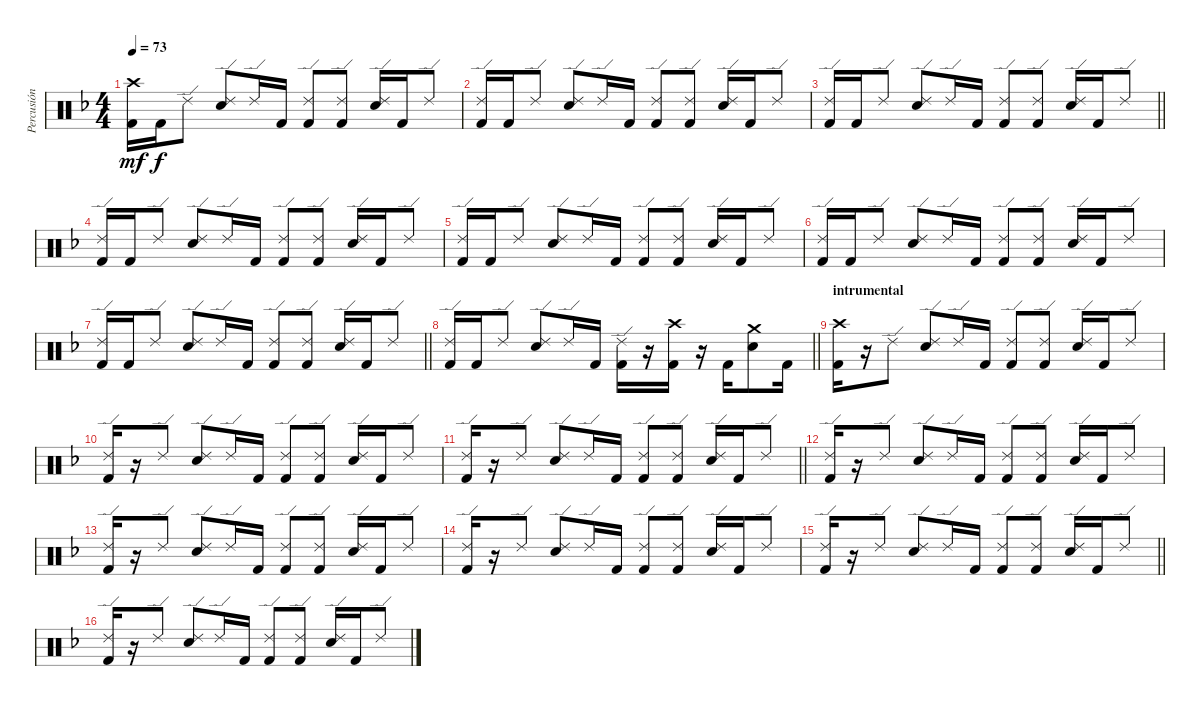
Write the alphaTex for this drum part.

\track ("Percusión" "Percusión") {instrument percussion}
\staff {score}
\articulation defaults
\ts (4 4)
\tempo 73
\clef neutral
\ks f
("Crash high (hit)" "Kick (hit) 2").16{dy mf} "Kick (hit) 2".16{dy f} "Ride (edge) 2".8 ("Ride (edge) 2" "Snare (hit) 2").8 "Ride (edge) 2".16 "Kick (hit) 2".16 ("Ride (edge) 2" "Kick (hit) 2").8 ("Ride (edge) 2" "Kick (hit) 2").8 ("Ride (edge) 2" "Snare (hit) 2").16 "Kick (hit) 2".16 "Ride (edge) 2".8 |
("Ride (edge) 2" "Kick (hit) 2").16 "Kick (hit) 2".16 "Ride (edge) 2".8 ("Ride (edge) 2" "Snare (hit) 2").8 "Ride (edge) 2".16 "Kick (hit) 2".16 ("Ride (edge) 2" "Kick (hit) 2").8 ("Ride (edge) 2" "Kick (hit) 2").8 ("Ride (edge) 2" "Snare (hit) 2").16 "Kick (hit) 2".16 "Ride (edge) 2".8 |
\barLineRight lightlight
("Ride (edge) 2" "Kick (hit) 2").16 "Kick (hit) 2".16 "Ride (edge) 2".8 ("Ride (edge) 2" "Snare (hit) 2").8 "Ride (edge) 2".16 "Kick (hit) 2".16 ("Ride (edge) 2" "Kick (hit) 2").8 ("Ride (edge) 2" "Kick (hit) 2").8 ("Ride (edge) 2" "Snare (hit) 2").16 "Kick (hit) 2".16 "Ride (edge) 2".8 |
("Ride (edge) 2" "Kick (hit) 2").16 "Kick (hit) 2".16 "Ride (edge) 2".8 ("Ride (edge) 2" "Snare (hit) 2").8 "Ride (edge) 2".16 "Kick (hit) 2".16 ("Ride (edge) 2" "Kick (hit) 2").8 ("Ride (edge) 2" "Kick (hit) 2").8 ("Ride (edge) 2" "Snare (hit) 2").16 "Kick (hit) 2".16 "Ride (edge) 2".8 |
("Ride (edge) 2" "Kick (hit) 2").16 "Kick (hit) 2".16 "Ride (edge) 2".8 ("Ride (edge) 2" "Snare (hit) 2").8 "Ride (edge) 2".16 "Kick (hit) 2".16 ("Ride (edge) 2" "Kick (hit) 2").8 ("Ride (edge) 2" "Kick (hit) 2").8 ("Ride (edge) 2" "Snare (hit) 2").16 "Kick (hit) 2".16 "Ride (edge) 2".8 |
("Ride (edge) 2" "Kick (hit) 2").16 "Kick (hit) 2".16 "Ride (edge) 2".8 ("Ride (edge) 2" "Snare (hit) 2").8 "Ride (edge) 2".16 "Kick (hit) 2".16 ("Ride (edge) 2" "Kick (hit) 2").8 ("Ride (edge) 2" "Kick (hit) 2").8 ("Ride (edge) 2" "Snare (hit) 2").16 "Kick (hit) 2".16 "Ride (edge) 2".8 |
\barLineRight lightlight
("Ride (edge) 2" "Kick (hit) 2").16 "Kick (hit) 2".16 "Ride (edge) 2".8 ("Ride (edge) 2" "Snare (hit) 2").8 "Ride (edge) 2".16 "Kick (hit) 2".16 ("Ride (edge) 2" "Kick (hit) 2").8 ("Ride (edge) 2" "Kick (hit) 2").8 ("Ride (edge) 2" "Snare (hit) 2").16 "Kick (hit) 2".16 "Ride (edge) 2".8 |
\barLineRight lightlight
("Ride (edge) 2" "Kick (hit) 2").16 "Kick (hit) 2".16 "Ride (edge) 2".8 ("Ride (edge) 2" "Snare (hit) 2").8 "Ride (edge) 2".16 "Kick (hit) 2".16 ("Ride (edge) 2" "Kick (hit) 2").16 r.16 ("Crash high (hit)" "Kick (hit) 2").16 r.16 "Kick (hit) 2".16 ("Crash medium (hit)" "Snare (hit) 2").8 "Kick (hit) 2".16 |
\section ("" "intrumental")
("Crash high (hit)" "Kick (hit) 2").16 r.16 "Ride (edge) 2".8 ("Ride (edge) 2" "Snare (hit) 2").8 "Ride (edge) 2".16 "Kick (hit) 2".16 ("Ride (edge) 2" "Kick (hit) 2").8 ("Ride (edge) 2" "Kick (hit) 2").8 ("Ride (edge) 2" "Snare (hit) 2").16 "Kick (hit) 2".16 "Ride (edge) 2".8 |
("Ride (edge) 2" "Kick (hit) 2").16 r.16 "Ride (edge) 2".8 ("Ride (edge) 2" "Snare (hit) 2").8 "Ride (edge) 2".16 "Kick (hit) 2".16 ("Ride (edge) 2" "Kick (hit) 2").8 ("Ride (edge) 2" "Kick (hit) 2").8 ("Ride (edge) 2" "Snare (hit) 2").16 "Kick (hit) 2".16 "Ride (edge) 2".8 |
\barLineRight lightlight
("Ride (edge) 2" "Kick (hit) 2").16 r.16 "Ride (edge) 2".8 ("Ride (edge) 2" "Snare (hit) 2").8 "Ride (edge) 2".16 "Kick (hit) 2".16 ("Ride (edge) 2" "Kick (hit) 2").8 ("Ride (edge) 2" "Kick (hit) 2").8 ("Ride (edge) 2" "Snare (hit) 2").16 "Kick (hit) 2".16 "Ride (edge) 2".8 |
("Ride (edge) 2" "Kick (hit) 2").16 r.16 "Ride (edge) 2".8 ("Ride (edge) 2" "Snare (hit) 2").8 "Ride (edge) 2".16 "Kick (hit) 2".16 ("Ride (edge) 2" "Kick (hit) 2").8 ("Ride (edge) 2" "Kick (hit) 2").8 ("Ride (edge) 2" "Snare (hit) 2").16 "Kick (hit) 2".16 "Ride (edge) 2".8 |
("Ride (edge) 2" "Kick (hit) 2").16 r.16 "Ride (edge) 2".8 ("Ride (edge) 2" "Snare (hit) 2").8 "Ride (edge) 2".16 "Kick (hit) 2".16 ("Ride (edge) 2" "Kick (hit) 2").8 ("Ride (edge) 2" "Kick (hit) 2").8 ("Ride (edge) 2" "Snare (hit) 2").16 "Kick (hit) 2".16 "Ride (edge) 2".8 |
("Ride (edge) 2" "Kick (hit) 2").16 r.16 "Ride (edge) 2".8 ("Ride (edge) 2" "Snare (hit) 2").8 "Ride (edge) 2".16 "Kick (hit) 2".16 ("Ride (edge) 2" "Kick (hit) 2").8 ("Ride (edge) 2" "Kick (hit) 2").8 ("Ride (edge) 2" "Snare (hit) 2").16 "Kick (hit) 2".16 "Ride (edge) 2".8 |
\barLineRight lightlight
("Ride (edge) 2" "Kick (hit) 2").16 r.16 "Ride (edge) 2".8 ("Ride (edge) 2" "Snare (hit) 2").8 "Ride (edge) 2".16 "Kick (hit) 2".16 ("Ride (edge) 2" "Kick (hit) 2").8 ("Ride (edge) 2" "Kick (hit) 2").8 ("Ride (edge) 2" "Snare (hit) 2").16 "Kick (hit) 2".16 "Ride (edge) 2".8 |
("Ride (edge) 2" "Kick (hit) 2").16 r.16 "Ride (edge) 2".8 ("Ride (edge) 2" "Snare (hit) 2").8 "Ride (edge) 2".16 "Kick (hit) 2".16 ("Ride (edge) 2" "Kick (hit) 2").8 ("Ride (edge) 2" "Kick (hit) 2").8 ("Ride (edge) 2" "Snare (hit) 2").16 "Kick (hit) 2".16 "Ride (edge) 2".8
